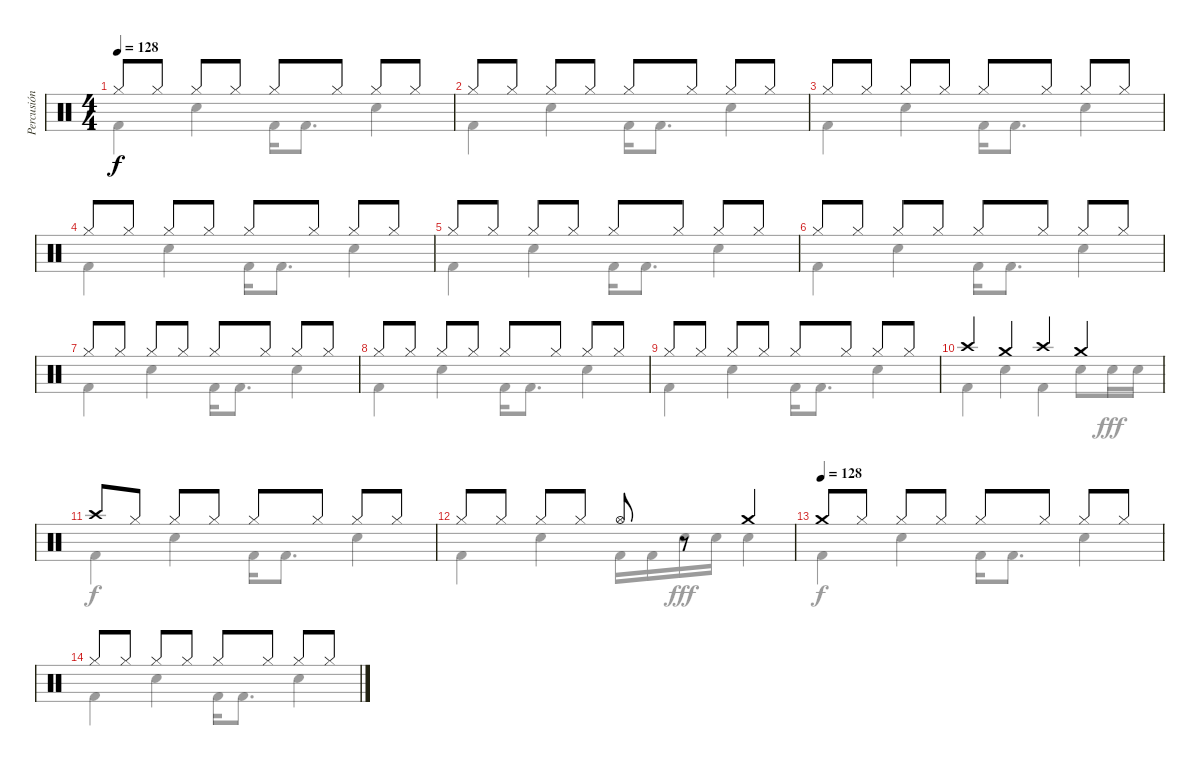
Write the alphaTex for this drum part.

\track ("Percusión" "Percusión") {instrument percussion}
\staff {score}
\articulation defaults
\voice
\ts (4 4)
\tempo 128
\clef neutral
\ks c "Hi-Hat (closed)".8{dy f} "Hi-Hat (closed)".8 "Hi-Hat (closed)".8 "Hi-Hat (closed)".8 "Hi-Hat (closed)".8 "Hi-Hat (closed)".8 "Hi-Hat (closed)".8 "Hi-Hat (closed)".8
|
"Hi-Hat (closed)".8 "Hi-Hat (closed)".8 "Hi-Hat (closed)".8 "Hi-Hat (closed)".8 "Hi-Hat (closed)".8 "Hi-Hat (closed)".8 "Hi-Hat (closed)".8 "Hi-Hat (closed)".8 |
"Hi-Hat (closed)".8 "Hi-Hat (closed)".8 "Hi-Hat (closed)".8 "Hi-Hat (closed)".8 "Hi-Hat (closed)".8 "Hi-Hat (closed)".8 "Hi-Hat (closed)".8 "Hi-Hat (closed)".8 |
"Hi-Hat (closed)".8 "Hi-Hat (closed)".8 "Hi-Hat (closed)".8 "Hi-Hat (closed)".8 "Hi-Hat (closed)".8 "Hi-Hat (closed)".8 "Hi-Hat (closed)".8 "Hi-Hat (closed)".8 |
"Hi-Hat (closed)".8 "Hi-Hat (closed)".8 "Hi-Hat (closed)".8 "Hi-Hat (closed)".8 "Hi-Hat (closed)".8 "Hi-Hat (closed)".8 "Hi-Hat (closed)".8 "Hi-Hat (closed)".8 |
"Hi-Hat (closed)".8 "Hi-Hat (closed)".8 "Hi-Hat (closed)".8 "Hi-Hat (closed)".8 "Hi-Hat (closed)".8 "Hi-Hat (closed)".8 "Hi-Hat (closed)".8 "Hi-Hat (closed)".8 |
"Hi-Hat (closed)".8 "Hi-Hat (closed)".8 "Hi-Hat (closed)".8 "Hi-Hat (closed)".8 "Hi-Hat (closed)".8 "Hi-Hat (closed)".8 "Hi-Hat (closed)".8 "Hi-Hat (closed)".8 |
"Hi-Hat (closed)".8 "Hi-Hat (closed)".8 "Hi-Hat (closed)".8 "Hi-Hat (closed)".8 "Hi-Hat (closed)".8 "Hi-Hat (closed)".8 "Hi-Hat (closed)".8 "Hi-Hat (closed)".8 |
"Hi-Hat (closed)".8 "Hi-Hat (closed)".8 "Hi-Hat (closed)".8 "Hi-Hat (closed)".8 "Hi-Hat (closed)".8 "Hi-Hat (closed)".8 "Hi-Hat (closed)".8 "Hi-Hat (closed)".8 |
"Crash high (hit)".4 "Crash medium (hit)".4 "Crash high (hit)".4 "Crash medium (hit)".4 |
"Crash high (hit)".8 "Hi-Hat (closed)".8 "Hi-Hat (closed)".8 "Hi-Hat (closed)".8 "Hi-Hat (closed)".8 "Hi-Hat (closed)".8 "Hi-Hat (closed)".8 "Hi-Hat (closed)".8 |
"Hi-Hat (closed)".8 "Hi-Hat (closed)".8 "Hi-Hat (closed)".8 "Hi-Hat (closed)".8 "Hi-Hat (open)".8 r.8 "Crash medium (hit)".4 |
\tempo (128)
"Crash medium (hit)".8{volume 12 balance 8} "Hi-Hat (closed)".8 "Hi-Hat (closed)".8 "Hi-Hat (closed)".8 "Hi-Hat (closed)".8 "Hi-Hat (closed)".8 "Hi-Hat (closed)".8 "Hi-Hat (closed)".8 |
"Hi-Hat (closed)".8 "Hi-Hat (closed)".8 "Hi-Hat (closed)".8 "Hi-Hat (closed)".8 "Hi-Hat (closed)".8 "Hi-Hat (closed)".8 "Hi-Hat (closed)".8 "Hi-Hat (closed)".8 |
|
\voice
\clef neutral
\ottava regular
\simile none
\ks c "Kick (hit) 2".4{dy f} "Electric Snare (hit)".4 "Kick (hit) 2".16 "Kick (hit) 2".8{d} "Electric Snare (hit)".4
|
"Kick (hit) 2".4 "Electric Snare (hit)".4 "Kick (hit) 2".16 "Kick (hit) 2".8{d} "Electric Snare (hit)".4 |
"Kick (hit) 2".4 "Electric Snare (hit)".4 "Kick (hit) 2".16 "Kick (hit) 2".8{d} "Electric Snare (hit)".4 |
"Kick (hit) 2".4 "Electric Snare (hit)".4 "Kick (hit) 2".16 "Kick (hit) 2".8{d} "Electric Snare (hit)".4 |
"Kick (hit) 2".4 "Electric Snare (hit)".4 "Kick (hit) 2".16 "Kick (hit) 2".8{d} "Electric Snare (hit)".4 |
"Kick (hit) 2".4 "Electric Snare (hit)".4 "Kick (hit) 2".16 "Kick (hit) 2".8{d} "Electric Snare (hit)".4 |
"Kick (hit) 2".4 "Electric Snare (hit)".4 "Kick (hit) 2".16 "Kick (hit) 2".8{d} "Electric Snare (hit)".4 |
"Kick (hit) 2".4 "Electric Snare (hit)".4 "Kick (hit) 2".16 "Kick (hit) 2".8{d} "Electric Snare (hit)".4 |
"Kick (hit) 2".4 "Electric Snare (hit)".4 "Kick (hit) 2".16 "Kick (hit) 2".8{d} "Electric Snare (hit)".4 |
"Kick (hit) 2".4 "Electric Snare (hit)".4 "Kick (hit) 2".4 "Electric Snare (hit)".8 "Electric Snare (hit)".16{dy fff} "Electric Snare (hit)".16 |
"Kick (hit) 2".4{dy f} "Electric Snare (hit)".4 "Kick (hit) 2".16 "Kick (hit) 2".8{d} "Electric Snare (hit)".4 |
"Kick (hit) 2".4 "Electric Snare (hit)".4 "Kick (hit) 2".16 "Kick (hit) 2".16 "Electric Snare (hit)".16{dy fff} "Electric Snare (hit)".16 "Electric Snare (hit)".4 |
"Kick (hit) 2".4{dy f} "Electric Snare (hit)".4 "Kick (hit) 2".16 "Kick (hit) 2".8{d} "Electric Snare (hit)".4 |
"Kick (hit) 2".4 "Electric Snare (hit)".4 "Kick (hit) 2".16 "Kick (hit) 2".8{d} "Electric Snare (hit)".4 |
|
